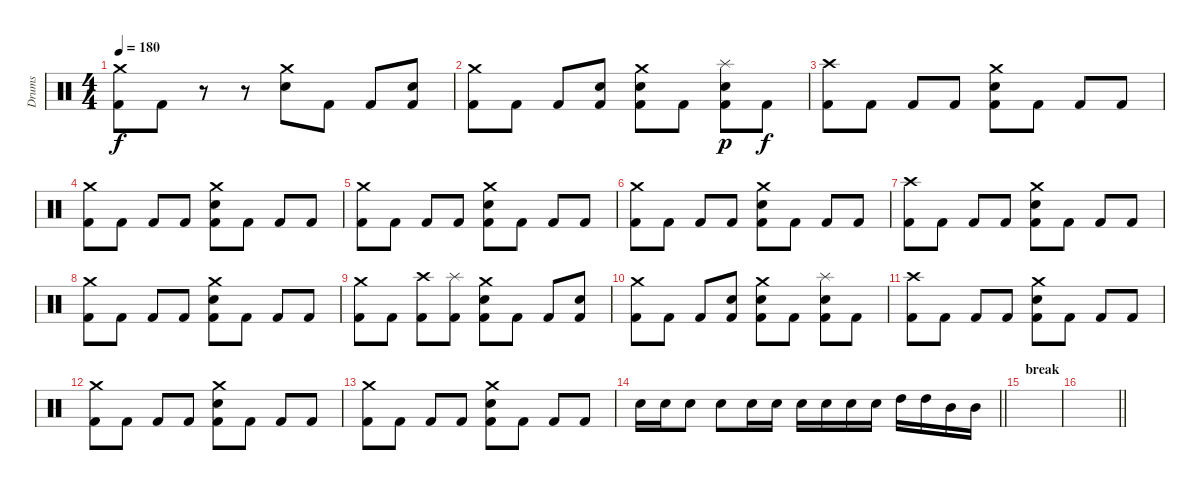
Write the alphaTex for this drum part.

\track ("Drums" "Drums") {instrument percussion}
\staff {score}
\articulation defaults
\ts (4 4)
\tempo 180
\clef neutral
\ks c
("Crash medium (hit)" "Kick (hit) 2").8{dy f} "Kick (hit) 2".8 r.8 r.8 ("Crash medium (hit)" "Electric Snare (hit)").8 "Kick (hit) 2".8 "Kick (hit) 2".8 ("Electric Snare (hit)" "Kick (hit) 2").8 |
("Crash medium (hit)" "Kick (hit) 2").8 "Kick (hit) 2".8 "Kick (hit) 2".8 ("Electric Snare (hit)" "Kick (hit) 2").8 ("Crash medium (hit)" "Electric Snare (hit)" "Kick (hit) 2").8 "Kick (hit) 2".8 ("Splash (hit)" "Electric Snare (hit)" "Kick (hit) 2").8{dy p} "Kick (hit) 2".8{dy f} |
("Crash high (hit)" "Kick (hit) 2").8 "Kick (hit) 2".8 "Kick (hit) 2".8 "Kick (hit) 2".8 ("Crash medium (hit)" "Electric Snare (hit)" "Kick (hit) 2").8 "Kick (hit) 2".8 "Kick (hit) 2".8 "Kick (hit) 2".8 |
("Crash medium (hit)" "Kick (hit) 2").8 "Kick (hit) 2".8 "Kick (hit) 2".8 "Kick (hit) 2".8 ("Crash medium (hit)" "Electric Snare (hit)" "Kick (hit) 2").8 "Kick (hit) 2".8 "Kick (hit) 2".8 "Kick (hit) 2".8 |
("Crash medium (hit)" "Kick (hit) 2").8 "Kick (hit) 2".8 "Kick (hit) 2".8 "Kick (hit) 2".8 ("Crash medium (hit)" "Electric Snare (hit)" "Kick (hit) 2").8 "Kick (hit) 2".8 "Kick (hit) 2".8 "Kick (hit) 2".8 |
("Crash medium (hit)" "Kick (hit) 2").8 "Kick (hit) 2".8 "Kick (hit) 2".8 "Kick (hit) 2".8 ("Crash medium (hit)" "Electric Snare (hit)" "Kick (hit) 2").8 "Kick (hit) 2".8 "Kick (hit) 2".8 "Kick (hit) 2".8 |
("Crash high (hit)" "Kick (hit) 2").8 "Kick (hit) 2".8 "Kick (hit) 2".8 "Kick (hit) 2".8 ("Crash medium (hit)" "Electric Snare (hit)" "Kick (hit) 2").8 "Kick (hit) 2".8 "Kick (hit) 2".8 "Kick (hit) 2".8 |
("Crash medium (hit)" "Kick (hit) 2").8 "Kick (hit) 2".8 "Kick (hit) 2".8 "Kick (hit) 2".8 ("Crash medium (hit)" "Electric Snare (hit)" "Kick (hit) 2").8 "Kick (hit) 2".8 "Kick (hit) 2".8 "Kick (hit) 2".8 |
("Crash medium (hit)" "Kick (hit) 2").8 "Kick (hit) 2".8 ("Crash high (hit)" "Kick (hit) 2").8 ("Splash (hit)" "Kick (hit) 2").8 ("Crash medium (hit)" "Electric Snare (hit)" "Kick (hit) 2").8 "Kick (hit) 2".8 "Kick (hit) 2".8 ("Electric Snare (hit)" "Kick (hit) 2").8 |
("Crash medium (hit)" "Kick (hit) 2").8 "Kick (hit) 2".8 "Kick (hit) 2".8 ("Electric Snare (hit)" "Kick (hit) 2").8 ("Crash medium (hit)" "Electric Snare (hit)" "Kick (hit) 2").8 "Kick (hit) 2".8 ("Splash (hit)" "Electric Snare (hit)" "Kick (hit) 2").8 "Kick (hit) 2".8 |
("Crash high (hit)" "Kick (hit) 2").8 "Kick (hit) 2".8 "Kick (hit) 2".8 "Kick (hit) 2".8 ("Crash medium (hit)" "Electric Snare (hit)" "Kick (hit) 2").8 "Kick (hit) 2".8 "Kick (hit) 2".8 "Kick (hit) 2".8 |
("Crash medium (hit)" "Kick (hit) 2").8 "Kick (hit) 2".8 "Kick (hit) 2".8 "Kick (hit) 2".8 ("Crash medium (hit)" "Electric Snare (hit)" "Kick (hit) 2").8 "Kick (hit) 2".8 "Kick (hit) 2".8 "Kick (hit) 2".8 |
("Crash medium (hit)" "Kick (hit) 2").8 "Kick (hit) 2".8 "Kick (hit) 2".8 "Kick (hit) 2".8 ("Crash medium (hit)" "Electric Snare (hit)" "Kick (hit) 2").8 "Kick (hit) 2".8 "Kick (hit) 2".8 "Kick (hit) 2".8 |
\barLineRight lightlight "Electric Snare (hit)".16 "Electric Snare (hit)".16 "Electric Snare (hit)".8 "Electric Snare (hit)".8 "Electric Snare (hit)".16 "Electric Snare (hit)".16 "Electric Snare (hit)".16 "Electric Snare (hit)".16 "Electric Snare (hit)".16 "Electric Snare (hit)".16 "High Tom (hit)".16 "High Tom (hit)".16 "Mid Tom (hit)".16 "Mid Tom (hit)".16
|
\section ("" "break")
|
\barLineRight lightlight
